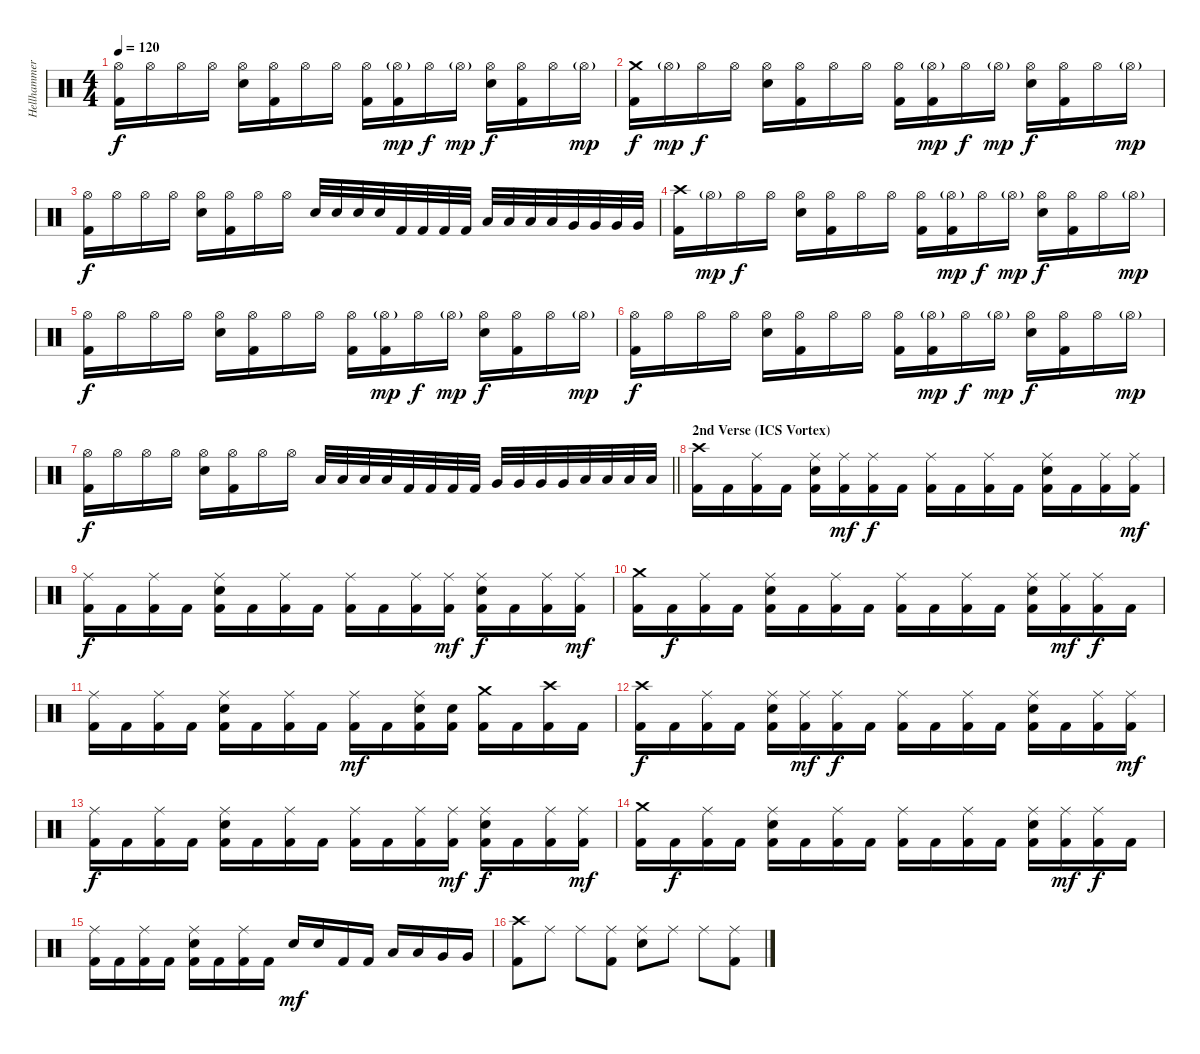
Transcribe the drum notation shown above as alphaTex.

\track ("Hellhammer" "Hellhammer") {instrument percussion}
\staff {score}
\articulation defaults
\ts (4 4)
\tempo 120
\clef neutral
\ks c
("Hi-Hat (open)" "Kick (hit) 2").16{dy f} "Hi-Hat (open)".16 "Hi-Hat (open)".16 "Hi-Hat (open)".16 ("Hi-Hat (open)" "Snare (hit) 2").16 ("Hi-Hat (open)" "Kick (hit) 2").16 "Hi-Hat (open)".16 "Hi-Hat (open)".16 ("Hi-Hat (open)" "Kick (hit) 2").16 ("Hi-Hat (open)"{g} "Kick (hit) 2").16{dy mp} "Hi-Hat (open)".16{dy f} "Hi-Hat (open)"{g}.16{dy mp} ("Hi-Hat (open)" "Snare (hit) 2").16{dy f} ("Hi-Hat (open)" "Kick (hit) 2").16 "Hi-Hat (open)".16 "Hi-Hat (open)"{g}.16{dy mp} |
("Crash medium (hit)" "Kick (hit) 2").16{dy f} "Hi-Hat (open)"{g}.16{dy mp} "Hi-Hat (open)".16{dy f} "Hi-Hat (open)".16 ("Hi-Hat (open)" "Snare (hit) 2").16 ("Hi-Hat (open)" "Kick (hit) 2").16 "Hi-Hat (open)".16 "Hi-Hat (open)".16 ("Hi-Hat (open)" "Kick (hit) 2").16 ("Hi-Hat (open)"{g} "Kick (hit) 2").16{dy mp} "Hi-Hat (open)".16{dy f} "Hi-Hat (open)"{g}.16{dy mp} ("Hi-Hat (open)" "Snare (hit) 2").16{dy f} ("Hi-Hat (open)" "Kick (hit) 2").16 "Hi-Hat (open)".16 "Hi-Hat (open)"{g}.16{dy mp} |
("Hi-Hat (open)" "Kick (hit) 2").16{dy f} "Hi-Hat (open)".16 "Hi-Hat (open)".16 "Hi-Hat (open)".16 ("Hi-Hat (open)" "Snare (hit) 2").16 ("Hi-Hat (open)" "Kick (hit) 2").16 "Hi-Hat (open)".16 "Hi-Hat (open)".16 "Snare (hit) 2".32 "Snare (hit) 2".32 "Snare (hit) 2".32 "Snare (hit) 2".32 "Kick (hit) 2".32 "Kick (hit) 2".32 "Kick (hit) 2".32 "Kick (hit) 2".32 "Low Tom (hit)".32 "Low Tom (hit)".32 "Low Tom (hit)".32 "Low Tom (hit)".32 "Very Low Tom (hit)".32 "Very Low Tom (hit)".32 "Very Low Tom (hit)".32 "Very Low Tom (hit)".32 |
("Crash high (hit)" "Kick (hit) 2").16 "Hi-Hat (open)"{g}.16{dy mp} "Hi-Hat (open)".16{dy f} "Hi-Hat (open)".16 ("Hi-Hat (open)" "Snare (hit) 2").16 ("Hi-Hat (open)" "Kick (hit) 2").16 "Hi-Hat (open)".16 "Hi-Hat (open)".16 ("Hi-Hat (open)" "Kick (hit) 2").16 ("Hi-Hat (open)"{g} "Kick (hit) 2").16{dy mp} "Hi-Hat (open)".16{dy f} "Hi-Hat (open)"{g}.16{dy mp} ("Hi-Hat (open)" "Snare (hit) 2").16{dy f} ("Hi-Hat (open)" "Kick (hit) 2").16 "Hi-Hat (open)".16 "Hi-Hat (open)"{g}.16{dy mp} |
("Hi-Hat (open)" "Kick (hit) 2").16{dy f} "Hi-Hat (open)".16 "Hi-Hat (open)".16 "Hi-Hat (open)".16 ("Hi-Hat (open)" "Snare (hit) 2").16 ("Hi-Hat (open)" "Kick (hit) 2").16 "Hi-Hat (open)".16 "Hi-Hat (open)".16 ("Hi-Hat (open)" "Kick (hit) 2").16 ("Hi-Hat (open)"{g} "Kick (hit) 2").16{dy mp} "Hi-Hat (open)".16{dy f} "Hi-Hat (open)"{g}.16{dy mp} ("Hi-Hat (open)" "Snare (hit) 2").16{dy f} ("Hi-Hat (open)" "Kick (hit) 2").16 "Hi-Hat (open)".16 "Hi-Hat (open)"{g}.16{dy mp} |
("Hi-Hat (open)" "Kick (hit) 2").16{dy f} "Hi-Hat (open)".16 "Hi-Hat (open)".16 "Hi-Hat (open)".16 ("Hi-Hat (open)" "Snare (hit) 2").16 ("Hi-Hat (open)" "Kick (hit) 2").16 "Hi-Hat (open)".16 "Hi-Hat (open)".16 ("Hi-Hat (open)" "Kick (hit) 2").16 ("Hi-Hat (open)"{g} "Kick (hit) 2").16{dy mp} "Hi-Hat (open)".16{dy f} "Hi-Hat (open)"{g}.16{dy mp} ("Hi-Hat (open)" "Snare (hit) 2").16{dy f} ("Hi-Hat (open)" "Kick (hit) 2").16 "Hi-Hat (open)".16 "Hi-Hat (open)"{g}.16{dy mp} |
\barLineRight lightlight
("Hi-Hat (open)" "Kick (hit) 2").16{dy f} "Hi-Hat (open)".16 "Hi-Hat (open)".16 "Hi-Hat (open)".16 ("Hi-Hat (open)" "Snare (hit) 2").16 ("Hi-Hat (open)" "Kick (hit) 2").16 "Hi-Hat (open)".16 "Hi-Hat (open)".16 "Low Tom (hit)".32 "Low Tom (hit)".32 "Low Tom (hit)".32 "Low Tom (hit)".32 "Kick (hit) 2".32 "Kick (hit) 2".32 "Kick (hit) 2".32 "Kick (hit) 2".32 "Very Low Tom (hit)".32 "Very Low Tom (hit)".32 "Very Low Tom (hit)".32 "Very Low Tom (hit)".32 "Low Floor Tom (hit)".32 "Low Floor Tom (hit)".32 "Low Floor Tom (hit)".32 "Low Floor Tom (hit)".32 |
\section ("" "2nd Verse (ICS Vortex)")
("Crash high (hit)" "Kick (hit) 2").16 "Kick (hit) 2".16 ("Ride (middle)" "Kick (hit) 2").16 "Kick (hit) 2".16 ("Ride (middle)" "Snare (hit) 2" "Kick (hit) 2").16 ("Ride (middle)" "Kick (hit) 2").16{dy mf} ("Ride (middle)" "Kick (hit) 2").16{dy f} "Kick (hit) 2".16 ("Ride (middle)" "Kick (hit) 2").16 "Kick (hit) 2".16 ("Ride (middle)" "Kick (hit) 2").16 "Kick (hit) 2".16 ("Ride (middle)" "Snare (hit) 2" "Kick (hit) 2").16 "Kick (hit) 2".16 ("Ride (middle)" "Kick (hit) 2").16 ("Ride (middle)" "Kick (hit) 2").16{dy mf} |
("Ride (middle)" "Kick (hit) 2").16{dy f} "Kick (hit) 2".16 ("Ride (middle)" "Kick (hit) 2").16 "Kick (hit) 2".16 ("Ride (middle)" "Snare (hit) 2" "Kick (hit) 2").16 "Kick (hit) 2".16 ("Ride (middle)" "Kick (hit) 2").16 "Kick (hit) 2".16 ("Ride (middle)" "Kick (hit) 2").16 "Kick (hit) 2".16 ("Ride (middle)" "Kick (hit) 2").16 ("Ride (middle)" "Kick (hit) 2").16{dy mf} ("Ride (middle)" "Snare (hit) 2" "Kick (hit) 2").16{dy f} "Kick (hit) 2".16 ("Ride (middle)" "Kick (hit) 2").16 ("Ride (middle)" "Kick (hit) 2").16{dy mf} |
("Crash medium (hit)" "Kick (hit) 2").16 "Kick (hit) 2".16{dy f} ("Ride (middle)" "Kick (hit) 2").16 "Kick (hit) 2".16 ("Ride (middle)" "Snare (hit) 2" "Kick (hit) 2").16 "Kick (hit) 2".16 ("Ride (middle)" "Kick (hit) 2").16 "Kick (hit) 2".16 ("Ride (middle)" "Kick (hit) 2").16 "Kick (hit) 2".16 ("Ride (middle)" "Kick (hit) 2").16 "Kick (hit) 2".16 ("Ride (middle)" "Snare (hit) 2" "Kick (hit) 2").16 ("Ride (middle)" "Kick (hit) 2").16{dy mf} ("Ride (middle)" "Kick (hit) 2").16{dy f} "Kick (hit) 2".16 |
("Ride (middle)" "Kick (hit) 2").16 "Kick (hit) 2".16 ("Ride (middle)" "Kick (hit) 2").16 "Kick (hit) 2".16 ("Ride (middle)" "Snare (hit) 2" "Kick (hit) 2").16 "Kick (hit) 2".16 ("Ride (middle)" "Kick (hit) 2").16 "Kick (hit) 2".16 ("Ride (middle)" "Kick (hit) 2").16{dy mf} "Kick (hit) 2".16 ("Ride (middle)" "Snare (hit) 2" "Kick (hit) 2").16 ("Snare (hit) 2" "Kick (hit) 2").16 ("Crash medium (hit)" "Kick (hit) 2").16 "Kick (hit) 2".16 ("Crash high (hit)" "Kick (hit) 2").16 "Kick (hit) 2".16 |
("Crash high (hit)" "Kick (hit) 2").16{dy f} "Kick (hit) 2".16 ("Ride (middle)" "Kick (hit) 2").16 "Kick (hit) 2".16 ("Ride (middle)" "Snare (hit) 2" "Kick (hit) 2").16 ("Ride (middle)" "Kick (hit) 2").16{dy mf} ("Ride (middle)" "Kick (hit) 2").16{dy f} "Kick (hit) 2".16 ("Ride (middle)" "Kick (hit) 2").16 "Kick (hit) 2".16 ("Ride (middle)" "Kick (hit) 2").16 "Kick (hit) 2".16 ("Ride (middle)" "Snare (hit) 2" "Kick (hit) 2").16 "Kick (hit) 2".16 ("Ride (middle)" "Kick (hit) 2").16 ("Ride (middle)" "Kick (hit) 2").16{dy mf} |
("Ride (middle)" "Kick (hit) 2").16{dy f} "Kick (hit) 2".16 ("Ride (middle)" "Kick (hit) 2").16 "Kick (hit) 2".16 ("Ride (middle)" "Snare (hit) 2" "Kick (hit) 2").16 "Kick (hit) 2".16 ("Ride (middle)" "Kick (hit) 2").16 "Kick (hit) 2".16 ("Ride (middle)" "Kick (hit) 2").16 "Kick (hit) 2".16 ("Ride (middle)" "Kick (hit) 2").16 ("Ride (middle)" "Kick (hit) 2").16{dy mf} ("Ride (middle)" "Snare (hit) 2" "Kick (hit) 2").16{dy f} "Kick (hit) 2".16 ("Ride (middle)" "Kick (hit) 2").16 ("Ride (middle)" "Kick (hit) 2").16{dy mf} |
("Crash medium (hit)" "Kick (hit) 2").16 "Kick (hit) 2".16{dy f} ("Ride (middle)" "Kick (hit) 2").16 "Kick (hit) 2".16 ("Ride (middle)" "Snare (hit) 2" "Kick (hit) 2").16 "Kick (hit) 2".16 ("Ride (middle)" "Kick (hit) 2").16 "Kick (hit) 2".16 ("Ride (middle)" "Kick (hit) 2").16 "Kick (hit) 2".16 ("Ride (middle)" "Kick (hit) 2").16 "Kick (hit) 2".16 ("Ride (middle)" "Snare (hit) 2" "Kick (hit) 2").16 ("Ride (middle)" "Kick (hit) 2").16{dy mf} ("Ride (middle)" "Kick (hit) 2").16{dy f} "Kick (hit) 2".16 |
("Ride (middle)" "Kick (hit) 2").16 "Kick (hit) 2".16 ("Ride (middle)" "Kick (hit) 2").16 "Kick (hit) 2".16 ("Ride (middle)" "Snare (hit) 2" "Kick (hit) 2").16 "Kick (hit) 2".16 ("Ride (middle)" "Kick (hit) 2").16 "Kick (hit) 2".16 "Snare (hit) 2".16{dy mf} "Snare (hit) 2".16 "Kick (hit) 2".16 "Kick (hit) 2".16 "Low Tom (hit)".16 "Low Tom (hit)".16 "Very Low Tom (hit)".16 "Very Low Tom (hit)".16 |
("Crash high (hit)" "Kick (hit) 2").8 "Ride (middle)".8 "Ride (middle)".8 ("Ride (middle)" "Kick (hit) 2").8 ("Ride (middle)" "Snare (hit) 2").8 "Ride (middle)".8 "Ride (middle)".8 ("Ride (middle)" "Kick (hit) 2").8
